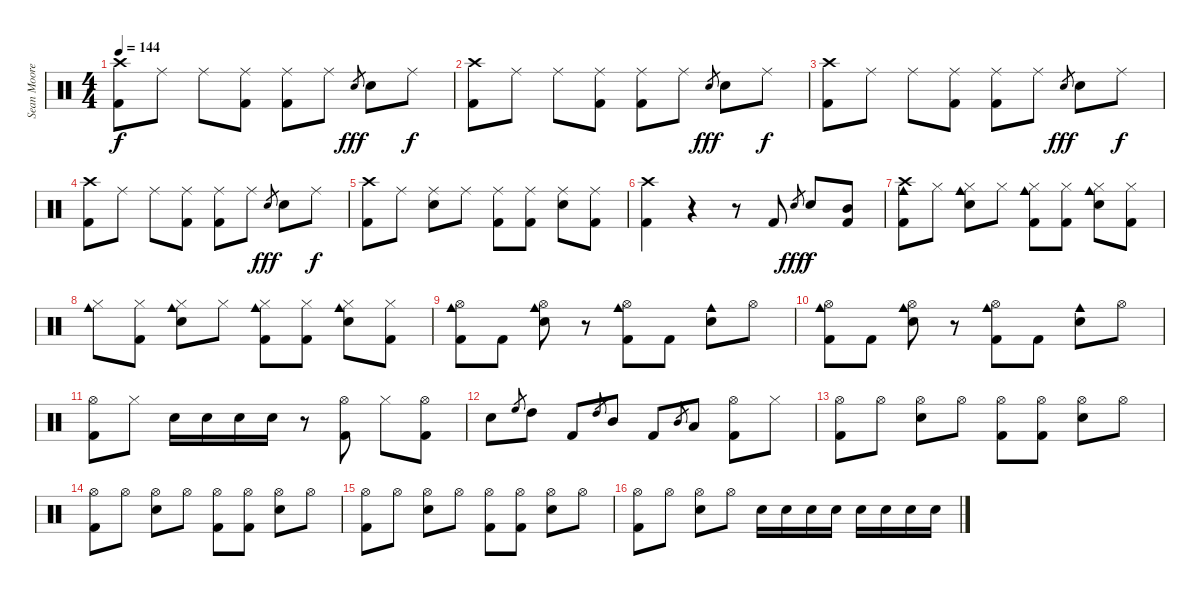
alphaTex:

\track ("Sean Moore" "Sean Moore") {instrument percussion}
\staff {score}
\articulation defaults
\ts (4 4)
\tempo 144
\clef neutral
\ks c
("Crash high (hit)" "Kick (hit) 2").8{dy f} "Ride (middle)".8 "Ride (middle)".8 ("Ride (middle)" "Kick (hit) 2").8 ("Ride (middle)" "Kick (hit) 2").8 "Ride (middle)".8 "Snare (hit) 2".8{gr dy fff} "Snare (hit) 2".8 "Ride (middle)".8{dy f} |
("Crash high (hit)" "Kick (hit) 2").8 "Ride (middle)".8 "Ride (middle)".8 ("Ride (middle)" "Kick (hit) 2").8 ("Ride (middle)" "Kick (hit) 2").8 "Ride (middle)".8 "Snare (hit) 2".8{gr dy fff} "Snare (hit) 2".8 "Ride (middle)".8{dy f} |
("Crash high (hit)" "Kick (hit) 2").8 "Ride (middle)".8 "Ride (middle)".8 ("Ride (middle)" "Kick (hit) 2").8 ("Ride (middle)" "Kick (hit) 2").8 "Ride (middle)".8 "Snare (hit) 2".8{gr dy fff} "Snare (hit) 2".8 "Ride (middle)".8{dy f} |
("Crash high (hit)" "Kick (hit) 2").8 "Ride (middle)".8 "Ride (middle)".8 ("Ride (middle)" "Kick (hit) 2").8 ("Ride (middle)" "Kick (hit) 2").8 "Ride (middle)".8 "Snare (hit) 2".8{gr dy fff} "Snare (hit) 2".8 "Ride (middle)".8{dy f} |
("Crash high (hit)" "Kick (hit) 2").8 "Ride (middle)".8 ("Ride (middle)" "Snare (hit) 2").8 "Ride (middle)".8 ("Ride (middle)" "Kick (hit) 2").8 ("Ride (middle)" "Kick (hit) 2").8 ("Ride (middle)" "Snare (hit) 2").8 ("Ride (middle)" "Kick (hit) 2").8 |
("Crash high (hit)" "Kick (hit) 2").4 r.4 r.8 "Kick (hit) 2".8 "Snare (hit) 2".8{gr dy fff} "Snare (hit) 2".8{dy f} ("Kick (hit) 2" "Mid Tom (hit)").8 |
("Crash high (hit)" "Kick (hit) 2" "Cowbell medium (hit)").8 "Hi-Hat (closed)".8 ("Hi-Hat (closed)" "Snare (hit) 2" "Cowbell medium (hit)").8 "Hi-Hat (closed)".8 ("Hi-Hat (closed)" "Kick (hit) 2" "Cowbell medium (hit)").8 ("Hi-Hat (closed)" "Kick (hit) 2").8 ("Hi-Hat (closed)" "Snare (hit) 2" "Cowbell medium (hit)").8 ("Hi-Hat (closed)" "Kick (hit) 2").8 |
("Hi-Hat (closed)" "Cowbell medium (hit)").8 ("Hi-Hat (closed)" "Kick (hit) 2").8 ("Hi-Hat (closed)" "Snare (hit) 2" "Cowbell medium (hit)").8 "Hi-Hat (closed)".8 ("Hi-Hat (closed)" "Kick (hit) 2" "Cowbell medium (hit)").8 ("Hi-Hat (closed)" "Kick (hit) 2").8 ("Hi-Hat (closed)" "Snare (hit) 2" "Cowbell medium (hit)").8 ("Hi-Hat (closed)" "Kick (hit) 2").8 |
("Hi-Hat (open)" "Kick (hit) 2" "Cowbell medium (hit)").8 "Kick (hit) 2".8 ("Hi-Hat (open)" "Snare (hit) 2" "Cowbell medium (hit)").8 r.8 ("Hi-Hat (open)" "Kick (hit) 2" "Cowbell medium (hit)").8 "Kick (hit) 2".8 ("Snare (hit) 2" "Cowbell medium (hit)").8 "Hi-Hat (open)".8 |
("Hi-Hat (open)" "Kick (hit) 2" "Cowbell medium (hit)").8 "Kick (hit) 2".8 ("Hi-Hat (open)" "Snare (hit) 2" "Cowbell medium (hit)").8 r.8 ("Hi-Hat (open)" "Kick (hit) 2" "Cowbell medium (hit)").8 "Kick (hit) 2".8 ("Snare (hit) 2" "Cowbell medium (hit)").8 "Hi-Hat (open)".8 |
("Hi-Hat (open)" "Kick (hit) 2").8 "Hi-Hat (closed)".8 "Snare (hit) 2".16 "Snare (hit) 2".16 "Snare (hit) 2".16 "Snare (hit) 2".16 r.8 ("Hi-Hat (open)" "Kick (hit) 2").8 "Hi-Hat (closed)".8 ("Hi-Hat (open)" "Kick (hit) 2").8 |
"Snare (hit) 2".8 "High Floor Tom (hit)".8{gr} "High Tom (hit)".8 "Kick (hit) 2".8 "High Tom (hit)".8{gr} "Mid Tom (hit)".8 "Kick (hit) 2".8 "Mid Tom (hit)".8{gr} "Low Tom (hit)".8 ("Hi-Hat (open)" "Kick (hit) 2").8 "Hi-Hat (closed)".8 |
("Hi-Hat (open)" "Kick (hit) 2").8 "Hi-Hat (open)".8 ("Hi-Hat (open)" "Snare (hit) 2").8 "Hi-Hat (open)".8 ("Hi-Hat (open)" "Kick (hit) 2").8 ("Hi-Hat (open)" "Kick (hit) 2").8 ("Hi-Hat (open)" "Snare (hit) 2").8 "Hi-Hat (open)".8 |
("Hi-Hat (open)" "Kick (hit) 2").8 "Hi-Hat (open)".8 ("Hi-Hat (open)" "Snare (hit) 2").8 "Hi-Hat (open)".8 ("Hi-Hat (open)" "Kick (hit) 2").8 ("Hi-Hat (open)" "Kick (hit) 2").8 ("Hi-Hat (open)" "Snare (hit) 2").8 "Hi-Hat (open)".8 |
("Hi-Hat (open)" "Kick (hit) 2").8 "Hi-Hat (open)".8 ("Hi-Hat (open)" "Snare (hit) 2").8 "Hi-Hat (open)".8 ("Hi-Hat (open)" "Kick (hit) 2").8 ("Hi-Hat (open)" "Kick (hit) 2").8 ("Hi-Hat (open)" "Snare (hit) 2").8 "Hi-Hat (open)".8 |
("Hi-Hat (open)" "Kick (hit) 2").8 "Hi-Hat (open)".8 ("Hi-Hat (open)" "Snare (hit) 2").8 "Hi-Hat (open)".8 "Snare (hit) 2".16 "Snare (hit) 2".16 "Snare (hit) 2".16 "Snare (hit) 2".16 "Snare (hit) 2".16 "Snare (hit) 2".16 "Snare (hit) 2".16 "Snare (hit) 2".16
